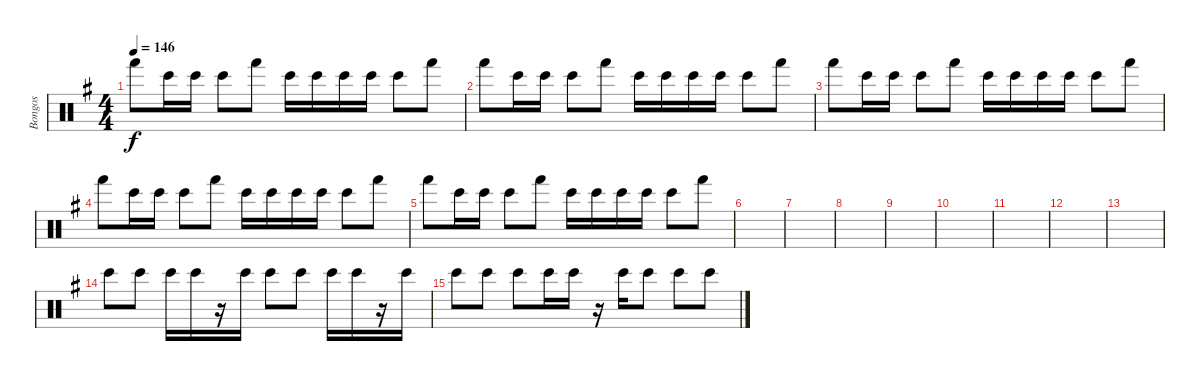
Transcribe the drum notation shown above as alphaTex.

\track ("Bongos" "Bongos") {instrument percussion}
\staff {score}
\articulation defaults
\ts (4 4)
\tempo 146
\clef neutral
\ks g "Hand (hit)".8{dy f} "Bongo High (hit)".16 "Bongo High (hit)".16 "Bongo High (hit)".8 "Hand (hit)".8 "Bongo High (hit)".16 "Bongo High (hit)".16 "Bongo High (hit)".16 "Bongo High (hit)".16 "Bongo High (hit)".8 "Hand (hit)".8
|
"Hand (hit)".8 "Bongo High (hit)".16 "Bongo High (hit)".16 "Bongo High (hit)".8 "Hand (hit)".8 "Bongo High (hit)".16 "Bongo High (hit)".16 "Bongo High (hit)".16 "Bongo High (hit)".16 "Bongo High (hit)".8 "Hand (hit)".8 |
"Hand (hit)".8 "Bongo High (hit)".16 "Bongo High (hit)".16 "Bongo High (hit)".8 "Hand (hit)".8 "Bongo High (hit)".16 "Bongo High (hit)".16 "Bongo High (hit)".16 "Bongo High (hit)".16 "Bongo High (hit)".8 "Hand (hit)".8 |
"Hand (hit)".8 "Bongo High (hit)".16 "Bongo High (hit)".16 "Bongo High (hit)".8 "Hand (hit)".8 "Bongo High (hit)".16 "Bongo High (hit)".16 "Bongo High (hit)".16 "Bongo High (hit)".16 "Bongo High (hit)".8 "Hand (hit)".8 |
"Hand (hit)".8 "Bongo High (hit)".16 "Bongo High (hit)".16 "Bongo High (hit)".8 "Hand (hit)".8 "Bongo High (hit)".16 "Bongo High (hit)".16 "Bongo High (hit)".16 "Bongo High (hit)".16 "Bongo High (hit)".8 "Hand (hit)".8 |
|
|
|
|
|
|
|
|
"Bongo High (hit)".8 "Bongo High (hit)".8 "Bongo High (hit)".16 "Bongo High (hit)".16 r.16 "Bongo High (hit)".16 "Bongo High (hit)".8 "Bongo High (hit)".8 "Bongo High (hit)".16 "Bongo High (hit)".16 r.16 "Bongo High (hit)".16 |
"Bongo High (hit)".8 "Bongo High (hit)".8 "Bongo High (hit)".8 "Bongo High (hit)".16 "Bongo High (hit)".16 r.16 "Bongo High (hit)".16 "Bongo High (hit)".8 "Bongo High (hit)".8 "Bongo High (hit)".8
